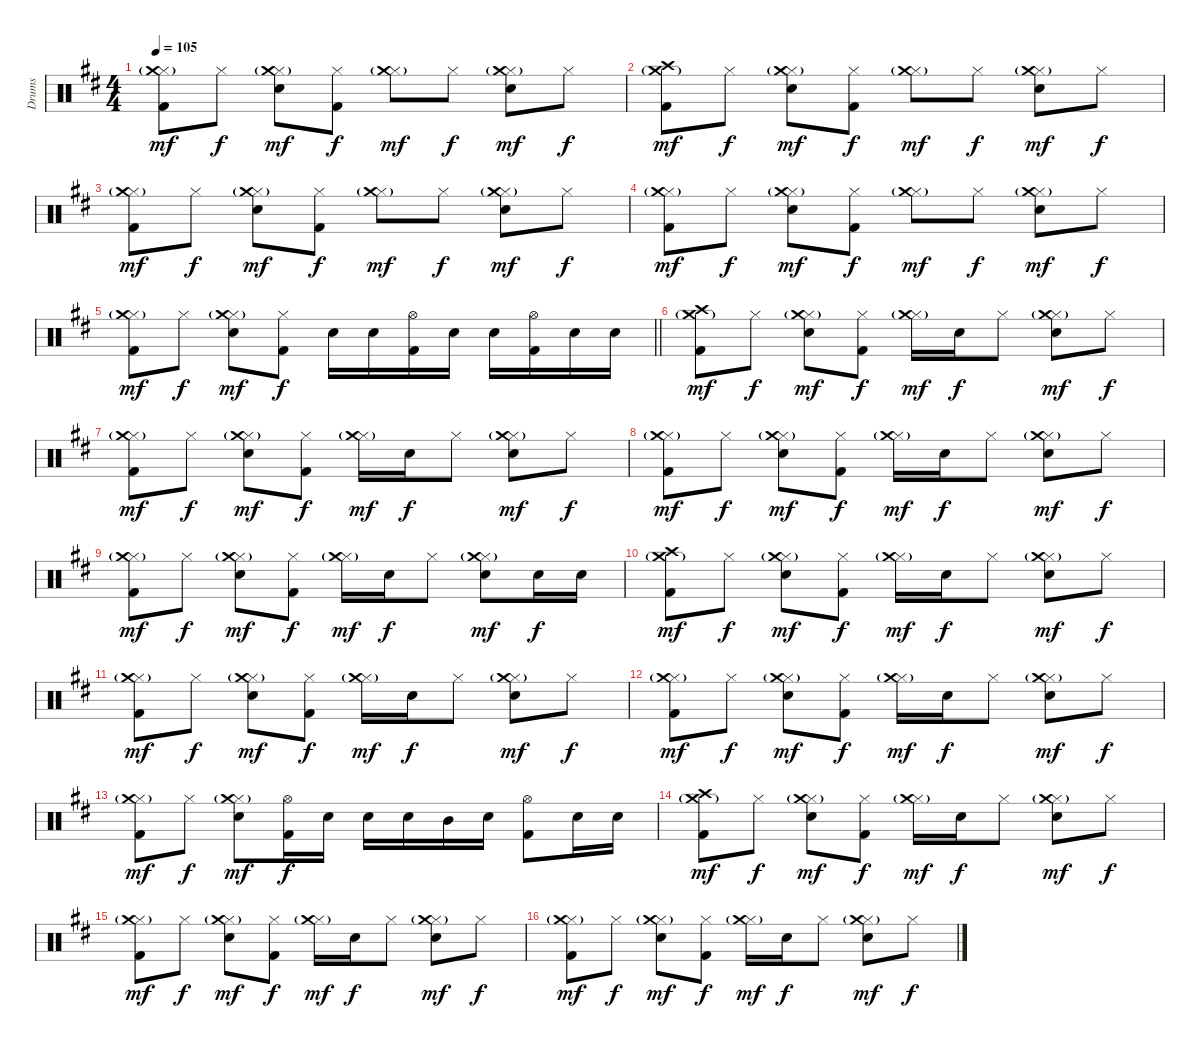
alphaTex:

\track ("Drums" "Drums") {instrument percussion}
\staff {score}
\articulation defaults
\ts (4 4)
\tempo 105
\clef neutral
\ks bminor
("Hi-Hat (closed)" "Crash medium (hit)"{g} "Kick (hit) 2").8{dy mf} "Hi-Hat (closed)".8{dy f} ("Hi-Hat (closed)" "Crash medium (hit)"{g} "Electric Snare (hit)").8{dy mf} ("Hi-Hat (closed)" "Kick (hit) 2").8{dy f} ("Hi-Hat (closed)" "Crash medium (hit)"{g}).8{dy mf} "Hi-Hat (closed)".8{dy f} ("Hi-Hat (closed)" "Crash medium (hit)"{g} "Electric Snare (hit)").8{dy mf} "Hi-Hat (closed)".8{dy f} |
("Crash high (hit)" "Crash medium (hit)"{g} "Kick (hit) 2").8{dy mf} "Hi-Hat (closed)".8{dy f} ("Hi-Hat (closed)" "Crash medium (hit)"{g} "Electric Snare (hit)").8{dy mf} ("Hi-Hat (closed)" "Kick (hit) 2").8{dy f} ("Hi-Hat (closed)" "Crash medium (hit)"{g}).8{dy mf} "Hi-Hat (closed)".8{dy f} ("Hi-Hat (closed)" "Crash medium (hit)"{g} "Electric Snare (hit)").8{dy mf} "Hi-Hat (closed)".8{dy f} |
("Hi-Hat (closed)" "Crash medium (hit)"{g} "Kick (hit) 2").8{dy mf} "Hi-Hat (closed)".8{dy f} ("Hi-Hat (closed)" "Crash medium (hit)"{g} "Electric Snare (hit)").8{dy mf} ("Hi-Hat (closed)" "Kick (hit) 2").8{dy f} ("Hi-Hat (closed)" "Crash medium (hit)"{g}).8{dy mf} "Hi-Hat (closed)".8{dy f} ("Hi-Hat (closed)" "Crash medium (hit)"{g} "Electric Snare (hit)").8{dy mf} "Hi-Hat (closed)".8{dy f} |
("Hi-Hat (closed)" "Crash medium (hit)"{g} "Kick (hit) 2").8{dy mf} "Hi-Hat (closed)".8{dy f} ("Hi-Hat (closed)" "Crash medium (hit)"{g} "Electric Snare (hit)").8{dy mf} ("Hi-Hat (closed)" "Kick (hit) 2").8{dy f} ("Hi-Hat (closed)" "Crash medium (hit)"{g}).8{dy mf} "Hi-Hat (closed)".8{dy f} ("Hi-Hat (closed)" "Crash medium (hit)"{g} "Electric Snare (hit)").8{dy mf} "Hi-Hat (closed)".8{dy f} |
\barLineRight lightlight
("Hi-Hat (closed)" "Crash medium (hit)"{g} "Kick (hit) 2").8{dy mf} "Hi-Hat (closed)".8{dy f} ("Hi-Hat (closed)" "Crash medium (hit)"{g} "Electric Snare (hit)").8{dy mf} ("Hi-Hat (closed)" "Kick (hit) 2").8{dy f} "Electric Snare (hit)".16 "Electric Snare (hit)".16 ("Hi-Hat (open)" "Kick (hit) 2").16 "Electric Snare (hit)".16 "Electric Snare (hit)".16 ("Hi-Hat (open)" "Kick (hit) 2").16 "Electric Snare (hit)".16 "Electric Snare (hit)".16 |
\section ("" "")
("Crash high (hit)" "Crash medium (hit)"{g} "Kick (hit) 2").8{dy mf} "Hi-Hat (closed)".8{dy f} ("Hi-Hat (closed)" "Crash medium (hit)"{g} "Electric Snare (hit)").8{dy mf} ("Hi-Hat (closed)" "Kick (hit) 2").8{dy f} ("Hi-Hat (closed)" "Crash medium (hit)"{g}).16{dy mf} "Electric Snare (hit)".16{dy f} "Hi-Hat (closed)".8 ("Hi-Hat (closed)" "Crash medium (hit)"{g} "Electric Snare (hit)").8{dy mf} "Hi-Hat (closed)".8{dy f} |
("Hi-Hat (closed)" "Crash medium (hit)"{g} "Kick (hit) 2").8{dy mf} "Hi-Hat (closed)".8{dy f} ("Hi-Hat (closed)" "Crash medium (hit)"{g} "Electric Snare (hit)").8{dy mf} ("Hi-Hat (closed)" "Kick (hit) 2").8{dy f} ("Hi-Hat (closed)" "Crash medium (hit)"{g}).16{dy mf} "Electric Snare (hit)".16{dy f} "Hi-Hat (closed)".8 ("Hi-Hat (closed)" "Crash medium (hit)"{g} "Electric Snare (hit)").8{dy mf} "Hi-Hat (closed)".8{dy f} |
("Hi-Hat (closed)" "Crash medium (hit)"{g} "Kick (hit) 2").8{dy mf} "Hi-Hat (closed)".8{dy f} ("Hi-Hat (closed)" "Crash medium (hit)"{g} "Electric Snare (hit)").8{dy mf} ("Hi-Hat (closed)" "Kick (hit) 2").8{dy f} ("Hi-Hat (closed)" "Crash medium (hit)"{g}).16{dy mf} "Electric Snare (hit)".16{dy f} "Hi-Hat (closed)".8 ("Hi-Hat (closed)" "Crash medium (hit)"{g} "Electric Snare (hit)").8{dy mf} "Hi-Hat (closed)".8{dy f} |
("Hi-Hat (closed)" "Crash medium (hit)"{g} "Kick (hit) 2").8{dy mf} "Hi-Hat (closed)".8{dy f} ("Hi-Hat (closed)" "Crash medium (hit)"{g} "Electric Snare (hit)").8{dy mf} ("Hi-Hat (closed)" "Kick (hit) 2").8{dy f} ("Hi-Hat (closed)" "Crash medium (hit)"{g}).16{dy mf} "Electric Snare (hit)".16{dy f} "Hi-Hat (closed)".8 ("Hi-Hat (closed)" "Crash medium (hit)"{g} "Electric Snare (hit)").8{dy mf} "Electric Snare (hit)".16{dy f} "Electric Snare (hit)".16 |
("Crash high (hit)" "Crash medium (hit)"{g} "Kick (hit) 2").8{dy mf} "Hi-Hat (closed)".8{dy f} ("Hi-Hat (closed)" "Crash medium (hit)"{g} "Electric Snare (hit)").8{dy mf} ("Hi-Hat (closed)" "Kick (hit) 2").8{dy f} ("Hi-Hat (closed)" "Crash medium (hit)"{g}).16{dy mf} "Electric Snare (hit)".16{dy f} "Hi-Hat (closed)".8 ("Hi-Hat (closed)" "Crash medium (hit)"{g} "Electric Snare (hit)").8{dy mf} "Hi-Hat (closed)".8{dy f} |
("Hi-Hat (closed)" "Crash medium (hit)"{g} "Kick (hit) 2").8{dy mf} "Hi-Hat (closed)".8{dy f} ("Hi-Hat (closed)" "Crash medium (hit)"{g} "Electric Snare (hit)").8{dy mf} ("Hi-Hat (closed)" "Kick (hit) 2").8{dy f} ("Hi-Hat (closed)" "Crash medium (hit)"{g}).16{dy mf} "Electric Snare (hit)".16{dy f} "Hi-Hat (closed)".8 ("Hi-Hat (closed)" "Crash medium (hit)"{g} "Electric Snare (hit)").8{dy mf} "Hi-Hat (closed)".8{dy f} |
("Hi-Hat (closed)" "Crash medium (hit)"{g} "Kick (hit) 2").8{dy mf} "Hi-Hat (closed)".8{dy f} ("Hi-Hat (closed)" "Crash medium (hit)"{g} "Electric Snare (hit)").8{dy mf} ("Hi-Hat (closed)" "Kick (hit) 2").8{dy f} ("Hi-Hat (closed)" "Crash medium (hit)"{g}).16{dy mf} "Electric Snare (hit)".16{dy f} "Hi-Hat (closed)".8 ("Hi-Hat (closed)" "Crash medium (hit)"{g} "Electric Snare (hit)").8{dy mf} "Hi-Hat (closed)".8{dy f} |
("Hi-Hat (closed)" "Crash medium (hit)"{g} "Kick (hit) 2").8{dy mf} "Hi-Hat (closed)".8{dy f} ("Hi-Hat (closed)" "Crash medium (hit)"{g} "Electric Snare (hit)").8{dy mf} ("Hi-Hat (open)" "Kick (hit) 2").16{dy f} "Electric Snare (hit)".16 "Electric Snare (hit)".16 "Electric Snare (hit)".16 "Mid Tom (hit)".16 "Electric Snare (hit)".16 ("Hi-Hat (open)" "Kick (hit) 2").8 "Electric Snare (hit)".16 "Electric Snare (hit)".16 |
("Crash high (hit)" "Crash medium (hit)"{g} "Kick (hit) 2").8{dy mf} "Hi-Hat (closed)".8{dy f} ("Hi-Hat (closed)" "Crash medium (hit)"{g} "Electric Snare (hit)").8{dy mf} ("Hi-Hat (closed)" "Kick (hit) 2").8{dy f} ("Hi-Hat (closed)" "Crash medium (hit)"{g}).16{dy mf} "Electric Snare (hit)".16{dy f} "Hi-Hat (closed)".8 ("Hi-Hat (closed)" "Crash medium (hit)"{g} "Electric Snare (hit)").8{dy mf} "Hi-Hat (closed)".8{dy f} |
("Hi-Hat (closed)" "Crash medium (hit)"{g} "Kick (hit) 2").8{dy mf} "Hi-Hat (closed)".8{dy f} ("Hi-Hat (closed)" "Crash medium (hit)"{g} "Electric Snare (hit)").8{dy mf} ("Hi-Hat (closed)" "Kick (hit) 2").8{dy f} ("Hi-Hat (closed)" "Crash medium (hit)"{g}).16{dy mf} "Electric Snare (hit)".16{dy f} "Hi-Hat (closed)".8 ("Hi-Hat (closed)" "Crash medium (hit)"{g} "Electric Snare (hit)").8{dy mf} "Hi-Hat (closed)".8{dy f} |
("Hi-Hat (closed)" "Crash medium (hit)"{g} "Kick (hit) 2").8{dy mf} "Hi-Hat (closed)".8{dy f} ("Hi-Hat (closed)" "Crash medium (hit)"{g} "Electric Snare (hit)").8{dy mf} ("Hi-Hat (closed)" "Kick (hit) 2").8{dy f} ("Hi-Hat (closed)" "Crash medium (hit)"{g}).16{dy mf} "Electric Snare (hit)".16{dy f} "Hi-Hat (closed)".8 ("Hi-Hat (closed)" "Crash medium (hit)"{g} "Electric Snare (hit)").8{dy mf} "Hi-Hat (closed)".8{dy f}
